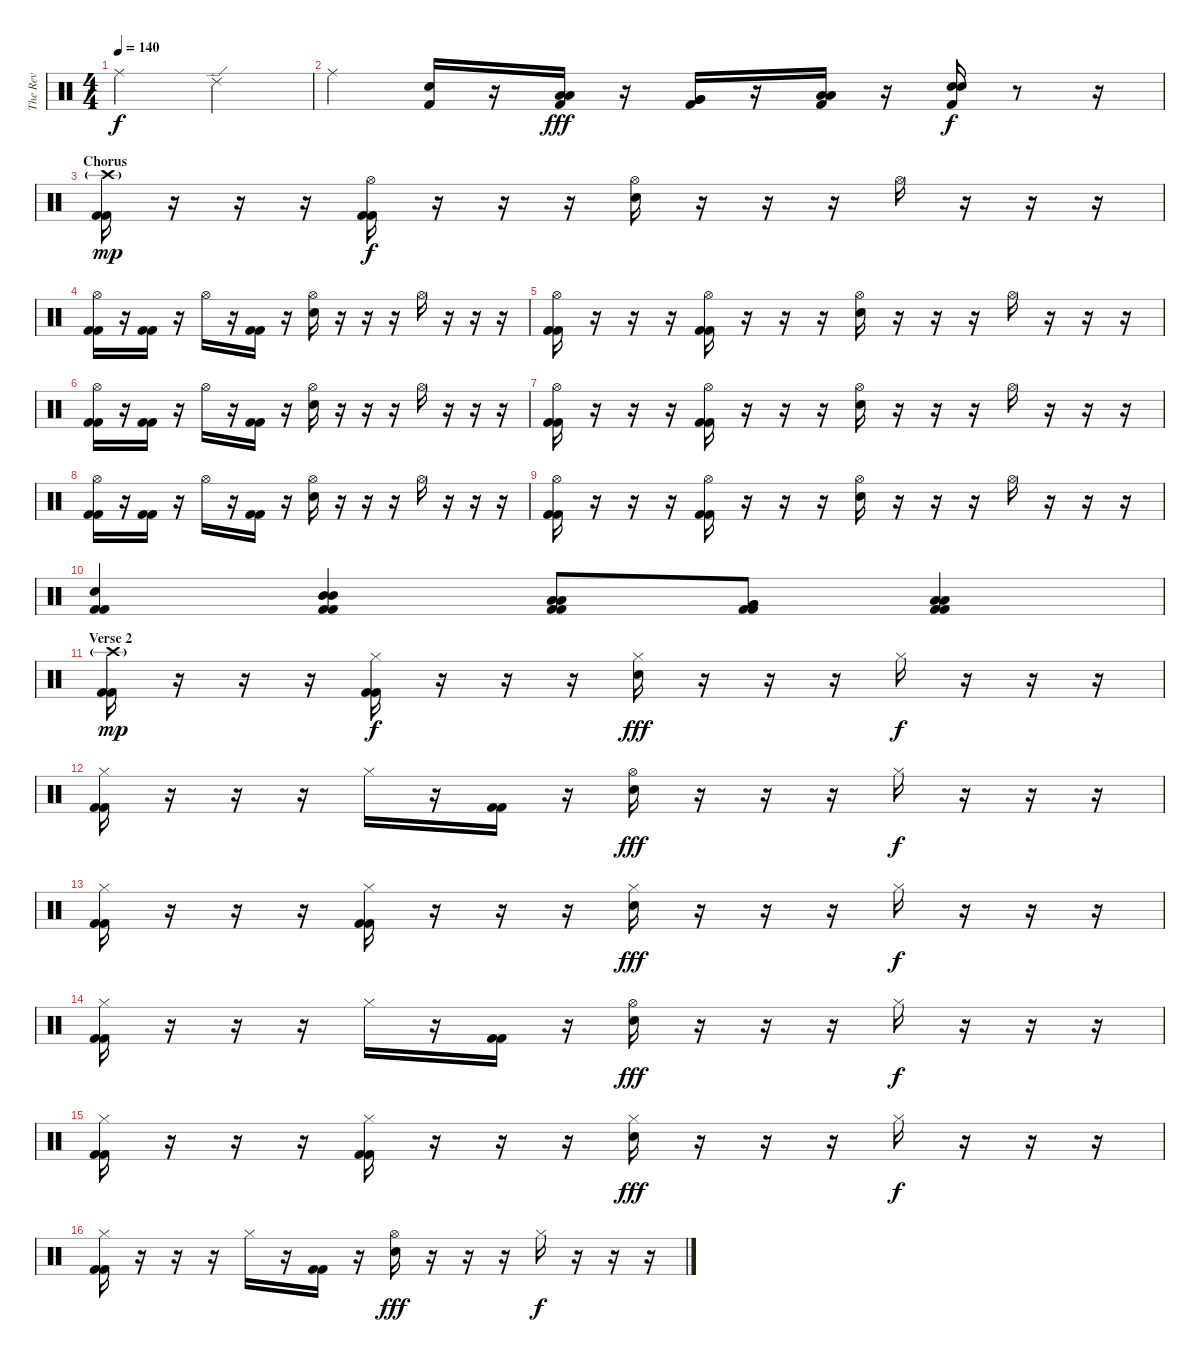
\track ("The Rev" "The Rev") {instrument percussion}
\staff {score}
\articulation defaults
\ts (4 4)
\tempo 140
\clef neutral
\ks c "Ride (middle)".2{dy f} "Ride (edge) 2".2
|
"Ride (middle)".4 ("Electric Snare (hit)" "Kick (hit) 2").16 r.16 ("Low Tom (hit)" "Low Tom (hit)" "Kick (hit) 2").16{dy fff} r.16 ("Very Low Tom (hit)" "Very Low Tom (hit)" "Kick (hit) 2").16 r.16 ("Low Floor Tom (hit)" "Low Floor Tom (hit)" "Kick (hit) 2").16 r.16 ("Electric Snare (hit)" "Electric Snare (hit)" "Kick (hit) 2").16{dy f} r.8 r.16 |
\section ("" "Chorus")
("Crash high (hit)"{g} "Kick (hit) 2" "Kick (hit) 2").16{dy mp} r.16 r.16 r.16 ("Hi-Hat (open)" "Kick (hit) 2" "Kick (hit) 2").16{dy f} r.16 r.16 r.16 ("Hi-Hat (open)" "Electric Snare (hit)").16 r.16 r.16 r.16 "Hi-Hat (open)".16 r.16 r.16 r.16 |
("Hi-Hat (open)" "Kick (hit) 2" "Kick (hit) 2").16 r.16 ("Kick (hit) 2" "Kick (hit) 2").16 r.16 "Hi-Hat (open)".16 r.16 ("Kick (hit) 2" "Kick (hit) 2").16 r.16 ("Hi-Hat (open)" "Electric Snare (hit)").16 r.16 r.16 r.16 "Hi-Hat (open)".16 r.16 r.16 r.16 |
("Hi-Hat (open)" "Kick (hit) 2" "Kick (hit) 2").16 r.16 r.16 r.16 ("Hi-Hat (open)" "Kick (hit) 2" "Kick (hit) 2").16 r.16 r.16 r.16 ("Hi-Hat (open)" "Electric Snare (hit)").16 r.16 r.16 r.16 "Hi-Hat (open)".16 r.16 r.16 r.16 |
("Hi-Hat (open)" "Kick (hit) 2" "Kick (hit) 2").16 r.16 ("Kick (hit) 2" "Kick (hit) 2").16 r.16 "Hi-Hat (open)".16 r.16 ("Kick (hit) 2" "Kick (hit) 2").16 r.16 ("Hi-Hat (open)" "Electric Snare (hit)").16 r.16 r.16 r.16 "Hi-Hat (open)".16 r.16 r.16 r.16 |
("Hi-Hat (open)" "Kick (hit) 2" "Kick (hit) 2").16 r.16 r.16 r.16 ("Hi-Hat (open)" "Kick (hit) 2" "Kick (hit) 2").16 r.16 r.16 r.16 ("Hi-Hat (open)" "Electric Snare (hit)").16 r.16 r.16 r.16 "Hi-Hat (open)".16 r.16 r.16 r.16 |
("Hi-Hat (open)" "Kick (hit) 2" "Kick (hit) 2").16 r.16 ("Kick (hit) 2" "Kick (hit) 2").16 r.16 "Hi-Hat (open)".16 r.16 ("Kick (hit) 2" "Kick (hit) 2").16 r.16 ("Hi-Hat (open)" "Electric Snare (hit)").16 r.16 r.16 r.16 "Hi-Hat (open)".16 r.16 r.16 r.16 |
("Hi-Hat (open)" "Kick (hit) 2" "Kick (hit) 2").16 r.16 r.16 r.16 ("Hi-Hat (open)" "Kick (hit) 2" "Kick (hit) 2").16 r.16 r.16 r.16 ("Hi-Hat (open)" "Electric Snare (hit)").16 r.16 r.16 r.16 "Hi-Hat (open)".16 r.16 r.16 r.16 |
("Electric Snare (hit)" "Kick (hit) 2" "Kick (hit) 2").4 ("Mid Tom (hit)" "Mid Tom (hit)" "Kick (hit) 2" "Kick (hit) 2").4 ("Low Tom (hit)" "Low Tom (hit)" "Kick (hit) 2" "Kick (hit) 2").8 ("Very Low Tom (hit)" "Very Low Tom (hit)" "Kick (hit) 2" "Kick (hit) 2").8 ("Low Floor Tom (hit)" "Low Floor Tom (hit)" "Kick (hit) 2" "Kick (hit) 2").4 |
\section ("" "Verse 2")
("Crash high (hit)"{g} "Kick (hit) 2" "Kick (hit) 2").16{dy mp} r.16 r.16 r.16 ("Hi-Hat (closed)" "Kick (hit) 2" "Kick (hit) 2").16{dy f} r.16 r.16 r.16 ("Hi-Hat (closed)" "Electric Snare (hit)").16{dy fff} r.16 r.16 r.16 "Hi-Hat (closed)".16{dy f} r.16 r.16 r.16 |
("Hi-Hat (closed)" "Kick (hit) 2" "Kick (hit) 2").16 r.16 r.16 r.16 "Hi-Hat (closed)".16 r.16 ("Kick (hit) 2" "Kick (hit) 2").16 r.16 ("Hi-Hat (open)" "Electric Snare (hit)").16{dy fff} r.16 r.16 r.16 "Hi-Hat (closed)".16{dy f} r.16 r.16 r.16 |
("Hi-Hat (closed)" "Kick (hit) 2" "Kick (hit) 2").16 r.16 r.16 r.16 ("Hi-Hat (closed)" "Kick (hit) 2" "Kick (hit) 2").16 r.16 r.16 r.16 ("Hi-Hat (closed)" "Electric Snare (hit)").16{dy fff} r.16 r.16 r.16 "Hi-Hat (closed)".16{dy f} r.16 r.16 r.16 |
("Hi-Hat (closed)" "Kick (hit) 2" "Kick (hit) 2").16 r.16 r.16 r.16 "Hi-Hat (closed)".16 r.16 ("Kick (hit) 2" "Kick (hit) 2").16 r.16 ("Hi-Hat (open)" "Electric Snare (hit)").16{dy fff} r.16 r.16 r.16 "Hi-Hat (closed)".16{dy f} r.16 r.16 r.16 |
("Hi-Hat (closed)" "Kick (hit) 2" "Kick (hit) 2").16 r.16 r.16 r.16 ("Hi-Hat (closed)" "Kick (hit) 2" "Kick (hit) 2").16 r.16 r.16 r.16 ("Hi-Hat (closed)" "Electric Snare (hit)").16{dy fff} r.16 r.16 r.16 "Hi-Hat (closed)".16{dy f} r.16 r.16 r.16 |
("Hi-Hat (closed)" "Kick (hit) 2" "Kick (hit) 2").16 r.16 r.16 r.16 "Hi-Hat (closed)".16 r.16 ("Kick (hit) 2" "Kick (hit) 2").16 r.16 ("Hi-Hat (open)" "Electric Snare (hit)").16{dy fff} r.16 r.16 r.16 "Hi-Hat (closed)".16{dy f} r.16 r.16 r.16
